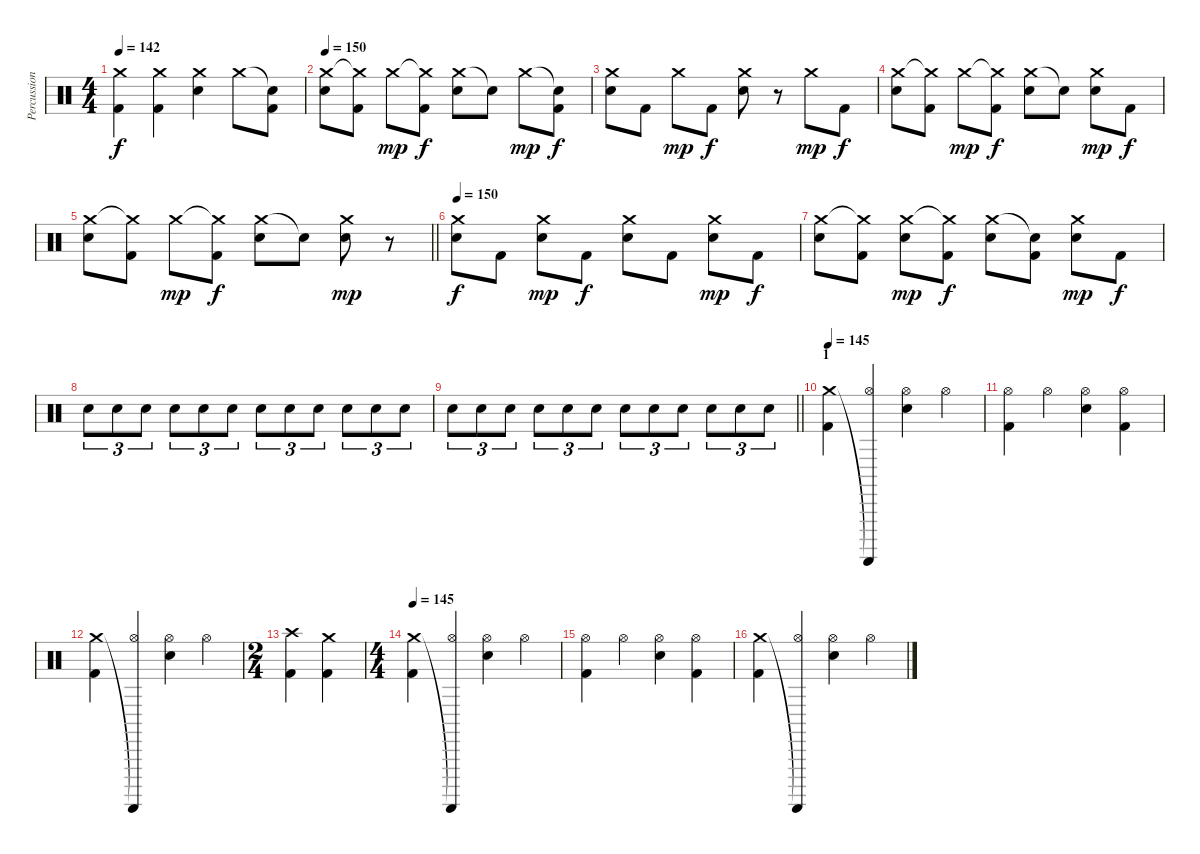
\track ("Percussion" "Percussion") {instrument percussion}
\staff {score}
\articulation defaults
\ts (4 4)
\tempo 142
\clef neutral
\ks c
("Crash medium (hit)" "Kick (hit) 2").4{dy f} ("Crash medium (hit)" "Kick (hit) 2").4 ("Crash medium (hit)" "Electric Snare (hit)").4 "Crash medium (hit)".8 ("Snare (hit)"{t} "Kick (hit) 2").8 |
\tempo 150
("Crash medium (hit)" "Electric Snare (hit)").8 ("Crash medium (hit)"{t} "Kick (hit) 2").8 "Crash medium (hit)".8{dy mp} ("Crash medium (hit)"{t} "Kick (hit) 2").8{dy f} ("Crash medium (hit)" "Electric Snare (hit)").8 "Snare (hit)"{t}.8 "Crash medium (hit)".8{dy mp} ("Snare (hit)"{t} "Kick (hit) 2").8{dy f} |
("Crash medium (hit)" "Electric Snare (hit)").8 "Kick (hit) 2".8 "Crash medium (hit)".8{dy mp} "Kick (hit) 2".8{dy f} ("Crash medium (hit)" "Electric Snare (hit)").8 r.8 "Crash medium (hit)".8{dy mp} "Kick (hit) 2".8{dy f} |
("Crash medium (hit)" "Electric Snare (hit)").8 ("Crash medium (hit)"{t} "Kick (hit) 2").8 "Crash medium (hit)".8{dy mp} ("Crash medium (hit)"{t} "Kick (hit) 2").8{dy f} ("Crash medium (hit)" "Electric Snare (hit)").8 "Snare (hit)"{t}.8 ("Crash medium (hit)" "Electric Snare (hit)").8{dy mp} "Kick (hit) 2".8{dy f} |
\barLineRight lightlight
("Crash medium (hit)" "Electric Snare (hit)").8 ("Crash medium (hit)"{t} "Kick (hit) 2").8 "Crash medium (hit)".8{dy mp} ("Crash medium (hit)"{t} "Kick (hit) 2").8{dy f} ("Crash medium (hit)" "Electric Snare (hit)").8 "Snare (hit)"{t}.8 ("Crash medium (hit)" "Electric Snare (hit)").8{dy mp} r.8 |
\tempo 150
("Crash medium (hit)" "Electric Snare (hit)").8{dy f} "Kick (hit) 2".8 ("Crash medium (hit)" "Electric Snare (hit)").8{dy mp} "Kick (hit) 2".8{dy f} ("Crash medium (hit)" "Electric Snare (hit)").8 "Kick (hit) 2".8 ("Crash medium (hit)" "Electric Snare (hit)").8{dy mp} "Kick (hit) 2".8{dy f} |
("Crash medium (hit)" "Electric Snare (hit)").8 ("Crash medium (hit)"{t} "Kick (hit) 2").8 ("Crash medium (hit)" "Electric Snare (hit)").8{dy mp} ("Crash medium (hit)"{t} "Kick (hit) 2").8{dy f} ("Crash medium (hit)" "Electric Snare (hit)").8 ("Snare (hit)"{t} "Kick (hit) 2").8 ("Crash medium (hit)" "Electric Snare (hit)").8{dy mp} "Kick (hit) 2".8{dy f} |
"Electric Snare (hit)".8{tu (3 2)} "Electric Snare (hit)".8{tu (3 2)} "Electric Snare (hit)".8{tu (3 2)} "Electric Snare (hit)".8{tu (3 2)} "Electric Snare (hit)".8{tu (3 2)} "Electric Snare (hit)".8{tu (3 2)} "Electric Snare (hit)".8{tu (3 2)} "Electric Snare (hit)".8{tu (3 2)} "Electric Snare (hit)".8{tu (3 2)} "Electric Snare (hit)".8{tu (3 2)} "Electric Snare (hit)".8{tu (3 2)} "Electric Snare (hit)".8{tu (3 2)} |
\barLineRight lightlight "Electric Snare (hit)".8{tu (3 2)} "Electric Snare (hit)".8{tu (3 2)} "Electric Snare (hit)".8{tu (3 2)} "Electric Snare (hit)".8{tu (3 2)} "Electric Snare (hit)".8{tu (3 2)} "Electric Snare (hit)".8{tu (3 2)} "Electric Snare (hit)".8{tu (3 2)} "Electric Snare (hit)".8{tu (3 2)} "Electric Snare (hit)".8{tu (3 2)} "Electric Snare (hit)".8{tu (3 2)} "Electric Snare (hit)".8{tu (3 2)} "Electric Snare (hit)".8{tu (3 2)}
|
\section ("" "1")
\tempo 145
("Crash medium (hit)" "Kick (hit) 2").4 ("Guiro (scrap-return)"{t} "Hi-Hat (open)").4 ("Hi-Hat (open)" "Electric Snare (hit)").4 "Hi-Hat (open)".4 |
("Hi-Hat (open)" "Kick (hit) 2").4 "Hi-Hat (open)".4 ("Hi-Hat (open)" "Electric Snare (hit)").4 ("Hi-Hat (open)" "Kick (hit) 2").4 |
("Crash medium (hit)" "Kick (hit) 2").4 ("Guiro (scrap-return)"{t} "Hi-Hat (open)").4 ("Hi-Hat (open)" "Electric Snare (hit)").4 "Hi-Hat (open)".4 |
\ts (2 4)
("Kick (hit) 2" "Crash high (hit)").4 ("Kick (hit) 2" "Crash medium (hit)").4 |
\ts (4 4)
\tempo 145
("Crash medium (hit)" "Kick (hit) 2").4 ("Guiro (scrap-return)"{t} "Hi-Hat (open)").4 ("Hi-Hat (open)" "Electric Snare (hit)").4 "Hi-Hat (open)".4 |
("Hi-Hat (open)" "Kick (hit) 2").4 "Hi-Hat (open)".4 ("Hi-Hat (open)" "Electric Snare (hit)").4 ("Hi-Hat (open)" "Kick (hit) 2").4 |
("Crash medium (hit)" "Kick (hit) 2").4 ("Guiro (scrap-return)"{t} "Hi-Hat (open)").4 ("Hi-Hat (open)" "Electric Snare (hit)").4 "Hi-Hat (open)".4
